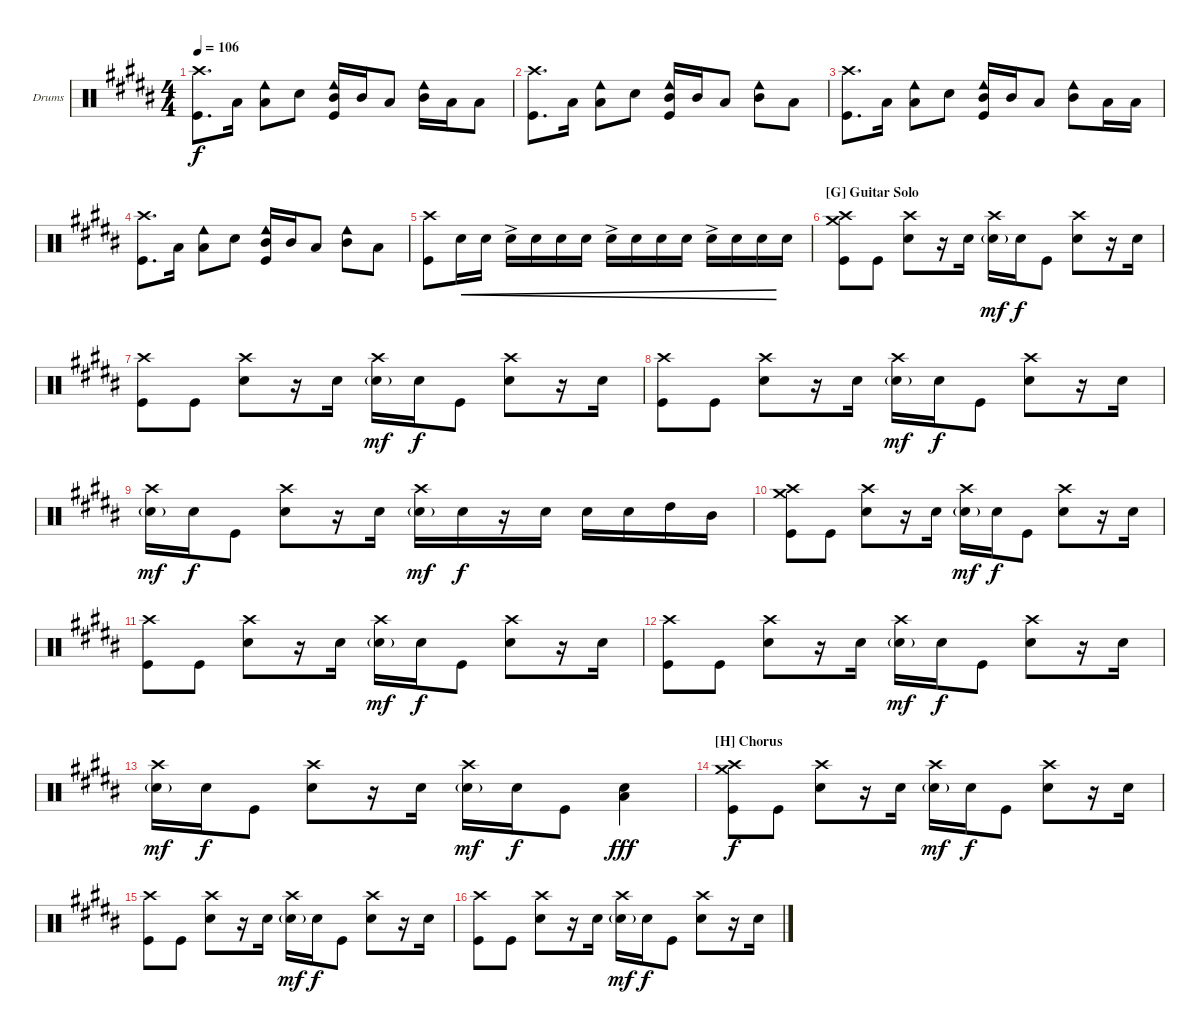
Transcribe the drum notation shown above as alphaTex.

\defaultSystemsLayout 4
\bracketExtendMode groupsimilarinstruments
\firstSystemTrackNameOrientation horizontal
\otherSystemsTrackNameOrientation horizontal
\track ("Dominic Boyce (Drums)" "Drums") {multiBarRest instrument percussion}
\staff {score}
\articulation defaults
\ts (4 4)
\tempo 106
\clef neutral
\ks b
("Crash high (hit)" "Kick (hit)").8{d dy f} "Low Tom (hit)".16 ("Low Tom (hit)" "Cowbell low (hit)").8 "Snare (hit) 2".8 ("Mid Tom (hit)" "Kick (hit)" "Cowbell low (hit)").16 "Mid Tom (hit)".16 "Low Tom (hit)".8 ("Mid Tom (hit)" "Cowbell low (hit)").16 "Low Tom (hit)".16 "Low Tom (hit)".8 |
("Crash high (hit)" "Kick (hit)").8{d} "Low Tom (hit)".16 ("Low Tom (hit)" "Cowbell low (hit)").8 "Snare (hit) 2".8 ("Mid Tom (hit)" "Kick (hit)" "Cowbell low (hit)").16 "Mid Tom (hit)".16 "Low Tom (hit)".8 ("Mid Tom (hit)" "Cowbell low (hit)").8 "Low Tom (hit)".8 |
("Crash high (hit)" "Kick (hit)").8{d} "Low Tom (hit)".16 ("Low Tom (hit)" "Cowbell low (hit)").8 "Snare (hit) 2".8 ("Mid Tom (hit)" "Kick (hit)" "Cowbell low (hit)").16 "Mid Tom (hit)".16 "Low Tom (hit)".8 ("Mid Tom (hit)" "Cowbell low (hit)").8 "Low Tom (hit)".16 "Low Tom (hit)".16 |
("Crash high (hit)" "Kick (hit)").8{d} "Low Tom (hit)".16 ("Low Tom (hit)" "Cowbell low (hit)").8 "Snare (hit) 2".8 ("Mid Tom (hit)" "Kick (hit)" "Cowbell low (hit)").16 "Mid Tom (hit)".16 "Low Tom (hit)".8 ("Mid Tom (hit)" "Cowbell low (hit)").8 "Low Tom (hit)".8 |
("Crash high (hit)" "Kick (hit)").8 "Snare (hit) 2".16{cre} "Snare (hit) 2".16{cre} "Snare (hit) 2"{ac}.16{cre} "Snare (hit) 2".16{cre} "Snare (hit) 2".16{cre} "Snare (hit) 2".16{cre} "Snare (hit) 2"{ac}.16{cre} "Snare (hit) 2".16{cre} "Snare (hit) 2".16{cre} "Snare (hit) 2".16{cre} "Snare (hit) 2"{ac}.16{cre} "Snare (hit) 2".16{cre} "Snare (hit) 2".16{cre} "Snare (hit) 2".16 |
\section ("G" "Guitar Solo ")
("Kick (hit)" "Crash high (hit)" "Crash medium (hit)").8 "Kick (hit)".8 ("Snare (hit) 2" "Crash high (hit)").8 r.16 "Snare (hit) 2".16 ("Snare (hit) 2"{g} "Crash high (hit)").16{dy mf} "Snare (hit) 2".16{dy f} "Kick (hit)".8 ("Snare (hit) 2" "Crash high (hit)").8 r.16 "Snare (hit) 2".16 |
("Kick (hit)" "Crash high (hit)").8 "Kick (hit)".8 ("Snare (hit) 2" "Crash high (hit)").8 r.16 "Snare (hit) 2".16 ("Snare (hit) 2"{g} "Crash high (hit)").16{dy mf} "Snare (hit) 2".16{dy f} "Kick (hit)".8 ("Snare (hit) 2" "Crash high (hit)").8 r.16 "Snare (hit) 2".16 |
("Kick (hit)" "Crash high (hit)").8 "Kick (hit)".8 ("Snare (hit) 2" "Crash high (hit)").8 r.16 "Snare (hit) 2".16 ("Snare (hit) 2"{g} "Crash high (hit)").16{dy mf} "Snare (hit) 2".16{dy f} "Kick (hit)".8 ("Snare (hit) 2" "Crash high (hit)").8 r.16 "Snare (hit) 2".16 |
("Snare (hit) 2"{g} "Crash high (hit)").16{dy mf} "Snare (hit) 2".16{dy f} "Kick (hit)".8 ("Snare (hit) 2" "Crash high (hit)").8 r.16 "Snare (hit) 2".16 ("Snare (hit) 2"{g} "Crash high (hit)").16{dy mf} "Snare (hit) 2".16{dy f} r.16 "Snare (hit) 2".16 "Snare (hit) 2".16 "Snare (hit) 2".16 "High Tom (hit)".16 "Mid Tom (hit)".16 |
("Kick (hit)" "Crash high (hit)" "Crash medium (hit)").8 "Kick (hit)".8 ("Snare (hit) 2" "Crash high (hit)").8 r.16 "Snare (hit) 2".16 ("Snare (hit) 2"{g} "Crash high (hit)").16{dy mf} "Snare (hit) 2".16{dy f} "Kick (hit)".8 ("Snare (hit) 2" "Crash high (hit)").8 r.16 "Snare (hit) 2".16 |
("Kick (hit)" "Crash high (hit)").8 "Kick (hit)".8 ("Snare (hit) 2" "Crash high (hit)").8 r.16 "Snare (hit) 2".16 ("Snare (hit) 2"{g} "Crash high (hit)").16{dy mf} "Snare (hit) 2".16{dy f} "Kick (hit)".8 ("Snare (hit) 2" "Crash high (hit)").8 r.16 "Snare (hit) 2".16 |
("Kick (hit)" "Crash high (hit)").8 "Kick (hit)".8 ("Snare (hit) 2" "Crash high (hit)").8 r.16 "Snare (hit) 2".16 ("Snare (hit) 2"{g} "Crash high (hit)").16{dy mf} "Snare (hit) 2".16{dy f} "Kick (hit)".8 ("Snare (hit) 2" "Crash high (hit)").8 r.16 "Snare (hit) 2".16 |
("Snare (hit) 2"{g} "Crash high (hit)").16{dy mf} "Snare (hit) 2".16{dy f} "Kick (hit)".8 ("Snare (hit) 2" "Crash high (hit)").8 r.16 "Snare (hit) 2".16 ("Snare (hit) 2"{g} "Crash high (hit)").16{dy mf} "Snare (hit) 2".16{dy f} "Kick (hit)".8 ("Snare (hit) 2" "Low Tom (hit)").4{dy fff} |
\section ("H" "Chorus")
("Kick (hit)" "Crash high (hit)" "Crash medium (hit)").8{dy f} "Kick (hit)".8 ("Snare (hit) 2" "Crash high (hit)").8 r.16 "Snare (hit) 2".16 ("Snare (hit) 2"{g} "Crash high (hit)").16{dy mf} "Snare (hit) 2".16{dy f} "Kick (hit)".8 ("Snare (hit) 2" "Crash high (hit)").8 r.16 "Snare (hit) 2".16 |
("Kick (hit)" "Crash high (hit)").8 "Kick (hit)".8 ("Snare (hit) 2" "Crash high (hit)").8 r.16 "Snare (hit) 2".16 ("Snare (hit) 2"{g} "Crash high (hit)").16{dy mf} "Snare (hit) 2".16{dy f} "Kick (hit)".8 ("Snare (hit) 2" "Crash high (hit)").8 r.16 "Snare (hit) 2".16 |
("Kick (hit)" "Crash high (hit)").8 "Kick (hit)".8 ("Snare (hit) 2" "Crash high (hit)").8 r.16 "Snare (hit) 2".16 ("Snare (hit) 2"{g} "Crash high (hit)").16{dy mf} "Snare (hit) 2".16{dy f} "Kick (hit)".8 ("Snare (hit) 2" "Crash high (hit)").8 r.16 "Snare (hit) 2".16
